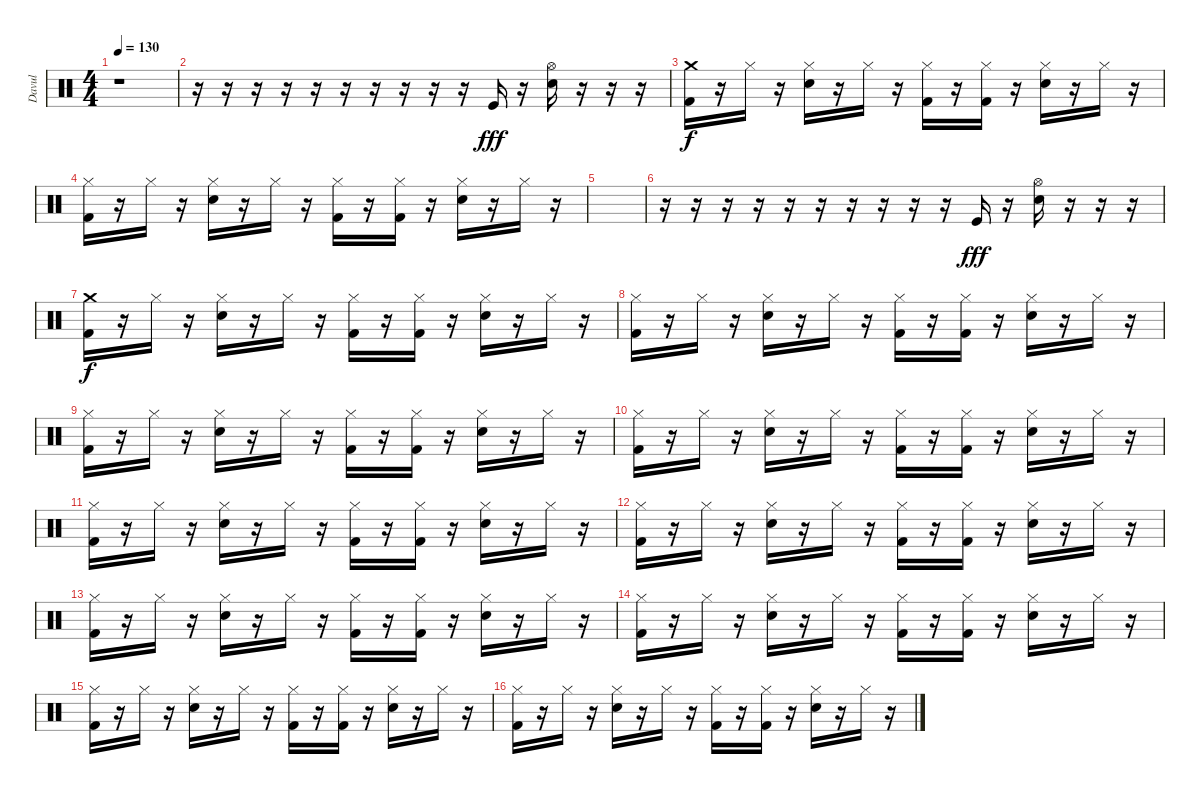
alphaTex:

\track ("Davul" "Davul") {instrument percussion}
\staff {score}
\articulation defaults
\ts (4 4)
\tempo 130
\clef neutral
\ks c
r.1{dy fff} |
r.16 r.16 r.16 r.16 r.16 r.16 r.16 r.16 r.16 r.16 "Kick (hit)".16 r.16 ("Hi-Hat (open)" "Snare (hit) 2").16 r.16 r.16 r.16 |
("Crash medium (hit)" "Kick (hit) 2").16{dy f} r.16 "Hi-Hat (closed)".16 r.16 ("Hi-Hat (closed)" "Snare (hit) 2").16 r.16 "Hi-Hat (closed)".16 r.16 ("Hi-Hat (closed)" "Kick (hit) 2").16 r.16 ("Hi-Hat (closed)" "Kick (hit) 2").16 r.16 ("Hi-Hat (closed)" "Snare (hit) 2").16 r.16 "Hi-Hat (closed)".16 r.16 |
("Hi-Hat (closed)" "Kick (hit) 2").16 r.16 "Hi-Hat (closed)".16 r.16 ("Hi-Hat (closed)" "Snare (hit) 2").16 r.16 "Hi-Hat (closed)".16 r.16 ("Hi-Hat (closed)" "Kick (hit) 2").16 r.16 ("Hi-Hat (closed)" "Kick (hit) 2").16 r.16 ("Hi-Hat (closed)" "Snare (hit) 2").16 r.16 "Hi-Hat (closed)".16 r.16 |
|
r.16 r.16 r.16 r.16 r.16 r.16 r.16 r.16 r.16 r.16 "Kick (hit)".16{dy fff} r.16 ("Hi-Hat (open)" "Snare (hit) 2").16 r.16 r.16 r.16 |
("Crash medium (hit)" "Kick (hit) 2").16{dy f} r.16 "Hi-Hat (closed)".16 r.16 ("Hi-Hat (closed)" "Snare (hit) 2").16 r.16 "Hi-Hat (closed)".16 r.16 ("Hi-Hat (closed)" "Kick (hit) 2").16 r.16 ("Hi-Hat (closed)" "Kick (hit) 2").16 r.16 ("Hi-Hat (closed)" "Snare (hit) 2").16 r.16 "Hi-Hat (closed)".16 r.16 |
("Hi-Hat (closed)" "Kick (hit) 2").16 r.16 "Hi-Hat (closed)".16 r.16 ("Hi-Hat (closed)" "Snare (hit) 2").16 r.16 "Hi-Hat (closed)".16 r.16 ("Hi-Hat (closed)" "Kick (hit) 2").16 r.16 ("Hi-Hat (closed)" "Kick (hit) 2").16 r.16 ("Hi-Hat (closed)" "Snare (hit) 2").16 r.16 "Hi-Hat (closed)".16 r.16 |
("Hi-Hat (closed)" "Kick (hit) 2").16 r.16 "Hi-Hat (closed)".16 r.16 ("Hi-Hat (closed)" "Snare (hit) 2").16 r.16 "Hi-Hat (closed)".16 r.16 ("Hi-Hat (closed)" "Kick (hit) 2").16 r.16 ("Hi-Hat (closed)" "Kick (hit) 2").16 r.16 ("Hi-Hat (closed)" "Snare (hit) 2").16 r.16 "Hi-Hat (closed)".16 r.16 |
("Hi-Hat (closed)" "Kick (hit) 2").16 r.16 "Hi-Hat (closed)".16 r.16 ("Hi-Hat (closed)" "Snare (hit) 2").16 r.16 "Hi-Hat (closed)".16 r.16 ("Hi-Hat (closed)" "Kick (hit) 2").16 r.16 ("Hi-Hat (closed)" "Kick (hit) 2").16 r.16 ("Hi-Hat (closed)" "Snare (hit) 2").16 r.16 "Hi-Hat (closed)".16 r.16 |
("Hi-Hat (closed)" "Kick (hit) 2").16 r.16 "Hi-Hat (closed)".16 r.16 ("Hi-Hat (closed)" "Snare (hit) 2").16 r.16 "Hi-Hat (closed)".16 r.16 ("Hi-Hat (closed)" "Kick (hit) 2").16 r.16 ("Hi-Hat (closed)" "Kick (hit) 2").16 r.16 ("Hi-Hat (closed)" "Snare (hit) 2").16 r.16 "Hi-Hat (closed)".16 r.16 |
("Hi-Hat (closed)" "Kick (hit) 2").16 r.16 "Hi-Hat (closed)".16 r.16 ("Hi-Hat (closed)" "Snare (hit) 2").16 r.16 "Hi-Hat (closed)".16 r.16 ("Hi-Hat (closed)" "Kick (hit) 2").16 r.16 ("Hi-Hat (closed)" "Kick (hit) 2").16 r.16 ("Hi-Hat (closed)" "Snare (hit) 2").16 r.16 "Hi-Hat (closed)".16 r.16 |
("Hi-Hat (closed)" "Kick (hit) 2").16 r.16 "Hi-Hat (closed)".16 r.16 ("Hi-Hat (closed)" "Snare (hit) 2").16 r.16 "Hi-Hat (closed)".16 r.16 ("Hi-Hat (closed)" "Kick (hit) 2").16 r.16 ("Hi-Hat (closed)" "Kick (hit) 2").16 r.16 ("Hi-Hat (closed)" "Snare (hit) 2").16 r.16 "Hi-Hat (closed)".16 r.16 |
("Hi-Hat (closed)" "Kick (hit) 2").16 r.16 "Hi-Hat (closed)".16 r.16 ("Hi-Hat (closed)" "Snare (hit) 2").16 r.16 "Hi-Hat (closed)".16 r.16 ("Hi-Hat (closed)" "Kick (hit) 2").16 r.16 ("Hi-Hat (closed)" "Kick (hit) 2").16 r.16 ("Hi-Hat (closed)" "Snare (hit) 2").16 r.16 "Hi-Hat (closed)".16 r.16 |
("Hi-Hat (closed)" "Kick (hit) 2").16 r.16 "Hi-Hat (closed)".16 r.16 ("Hi-Hat (closed)" "Snare (hit) 2").16 r.16 "Hi-Hat (closed)".16 r.16 ("Hi-Hat (closed)" "Kick (hit) 2").16 r.16 ("Hi-Hat (closed)" "Kick (hit) 2").16 r.16 ("Hi-Hat (closed)" "Snare (hit) 2").16 r.16 "Hi-Hat (closed)".16 r.16 |
("Hi-Hat (closed)" "Kick (hit) 2").16 r.16 "Hi-Hat (closed)".16 r.16 ("Hi-Hat (closed)" "Snare (hit) 2").16 r.16 "Hi-Hat (closed)".16 r.16 ("Hi-Hat (closed)" "Kick (hit) 2").16 r.16 ("Hi-Hat (closed)" "Kick (hit) 2").16 r.16 ("Hi-Hat (closed)" "Snare (hit) 2").16 r.16 "Hi-Hat (closed)".16 r.16
